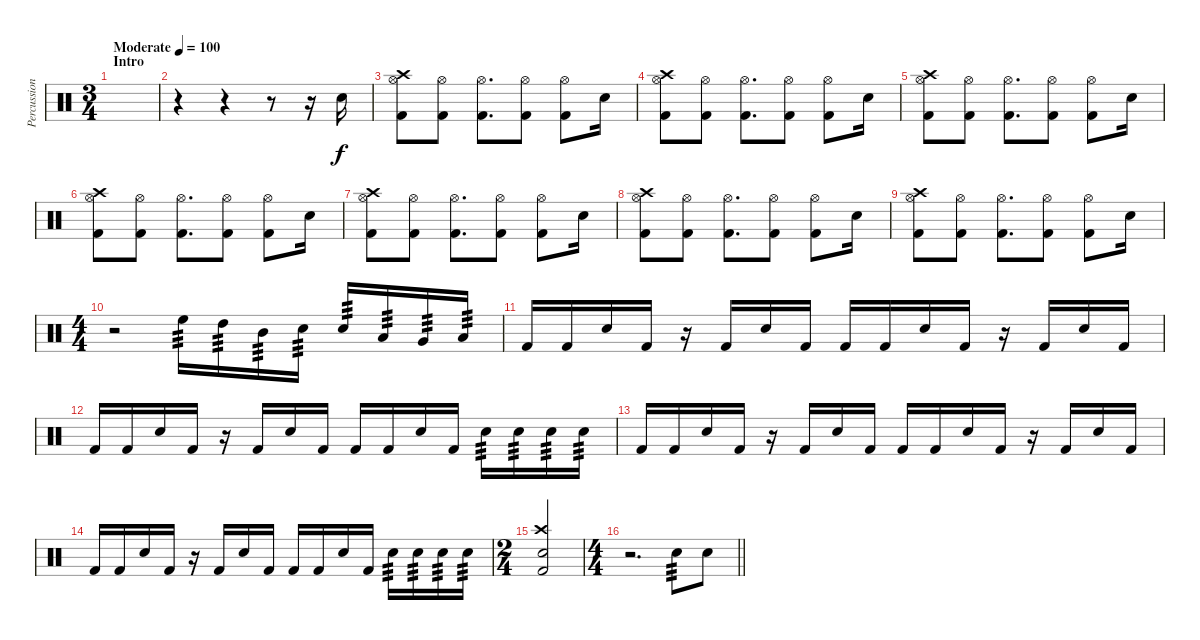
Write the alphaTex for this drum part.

\track ("Percussion" "Percussion") {instrument percussion}
\staff {score}
\articulation defaults
\ts (3 4)
\section ("" "Intro")
\tempo (100 "Moderate")
\clef neutral
\ks c
|
r.4 r.4 r.8 r.16 "Snare (hit) 2".16 |
("Crash high (hit)" "Hi-Hat (open)" "Kick (hit) 2").8 ("Hi-Hat (open)" "Kick (hit) 2").8 ("Hi-Hat (open)" "Kick (hit) 2").8{d} ("Hi-Hat (open)" "Kick (hit) 2").8 ("Hi-Hat (open)" "Kick (hit) 2").8 "Snare (hit) 2".16 |
("Crash high (hit)" "Hi-Hat (open)" "Kick (hit) 2").8 ("Hi-Hat (open)" "Kick (hit) 2").8 ("Hi-Hat (open)" "Kick (hit) 2").8{d} ("Hi-Hat (open)" "Kick (hit) 2").8 ("Hi-Hat (open)" "Kick (hit) 2").8 "Snare (hit) 2".16 |
("Crash high (hit)" "Hi-Hat (open)" "Kick (hit) 2").8 ("Hi-Hat (open)" "Kick (hit) 2").8 ("Hi-Hat (open)" "Kick (hit) 2").8{d} ("Hi-Hat (open)" "Kick (hit) 2").8 ("Hi-Hat (open)" "Kick (hit) 2").8 "Snare (hit) 2".16 |
("Crash high (hit)" "Hi-Hat (open)" "Kick (hit) 2").8 ("Hi-Hat (open)" "Kick (hit) 2").8 ("Hi-Hat (open)" "Kick (hit) 2").8{d} ("Hi-Hat (open)" "Kick (hit) 2").8 ("Hi-Hat (open)" "Kick (hit) 2").8 "Snare (hit) 2".16 |
("Crash high (hit)" "Hi-Hat (open)" "Kick (hit) 2").8 ("Hi-Hat (open)" "Kick (hit) 2").8 ("Hi-Hat (open)" "Kick (hit) 2").8{d} ("Hi-Hat (open)" "Kick (hit) 2").8 ("Hi-Hat (open)" "Kick (hit) 2").8 "Snare (hit) 2".16 |
("Crash high (hit)" "Hi-Hat (open)" "Kick (hit) 2").8 ("Hi-Hat (open)" "Kick (hit) 2").8 ("Hi-Hat (open)" "Kick (hit) 2").8{d} ("Hi-Hat (open)" "Kick (hit) 2").8 ("Hi-Hat (open)" "Kick (hit) 2").8 "Snare (hit) 2".16 |
("Crash high (hit)" "Hi-Hat (open)" "Kick (hit) 2").8 ("Hi-Hat (open)" "Kick (hit) 2").8 ("Hi-Hat (open)" "Kick (hit) 2").8{d} ("Hi-Hat (open)" "Kick (hit) 2").8 ("Hi-Hat (open)" "Kick (hit) 2").8 "Snare (hit) 2".16 |
\ts (4 4)
r.2 "High Floor Tom (hit)".16{tp 3} "High Tom (hit)".16{tp 3} "Mid Tom (hit)".16{tp 3} "Snare (hit) 2".16{tp 3} "Snare (hit) 2".16{tp 3} "Low Tom (hit)".16{tp 3} "Very Low Tom (hit)".16{tp 3} "Low Floor Tom (hit)".16{tp 3} |
"Kick (hit) 2".16 "Kick (hit) 2".16 "Snare (hit) 2".16 "Kick (hit) 2".16 r.16 "Kick (hit) 2".16 "Snare (hit) 2".16 "Kick (hit) 2".16 "Kick (hit) 2".16 "Kick (hit) 2".16 "Snare (hit) 2".16 "Kick (hit) 2".16 r.16 "Kick (hit) 2".16 "Snare (hit) 2".16 "Kick (hit) 2".16 |
"Kick (hit) 2".16 "Kick (hit) 2".16 "Snare (hit) 2".16 "Kick (hit) 2".16 r.16 "Kick (hit) 2".16 "Snare (hit) 2".16 "Kick (hit) 2".16 "Kick (hit) 2".16 "Kick (hit) 2".16 "Snare (hit) 2".16 "Kick (hit) 2".16 "Snare (hit) 2".16{tp 3} "Snare (hit) 2".16{tp 3} "Snare (hit) 2".16{tp 3} "Snare (hit) 2".16{tp 3} |
"Kick (hit) 2".16 "Kick (hit) 2".16 "Snare (hit) 2".16 "Kick (hit) 2".16 r.16 "Kick (hit) 2".16 "Snare (hit) 2".16 "Kick (hit) 2".16 "Kick (hit) 2".16 "Kick (hit) 2".16 "Snare (hit) 2".16 "Kick (hit) 2".16 r.16 "Kick (hit) 2".16 "Snare (hit) 2".16 "Kick (hit) 2".16 |
"Kick (hit) 2".16 "Kick (hit) 2".16 "Snare (hit) 2".16 "Kick (hit) 2".16 r.16 "Kick (hit) 2".16 "Snare (hit) 2".16 "Kick (hit) 2".16 "Kick (hit) 2".16 "Kick (hit) 2".16 "Snare (hit) 2".16 "Kick (hit) 2".16 "Snare (hit) 2".16{tp 3} "Snare (hit) 2".16{tp 3} "Snare (hit) 2".16{tp 3} "Snare (hit) 2".16{tp 3} |
\ts (2 4)
("Crash high (hit)" "Snare (hit) 2" "Kick (hit) 2").2 |
\ts (4 4)
\barLineRight lightlight
r.2{d} "Snare (hit) 2".8{tp 3} "Snare (hit) 2".8
